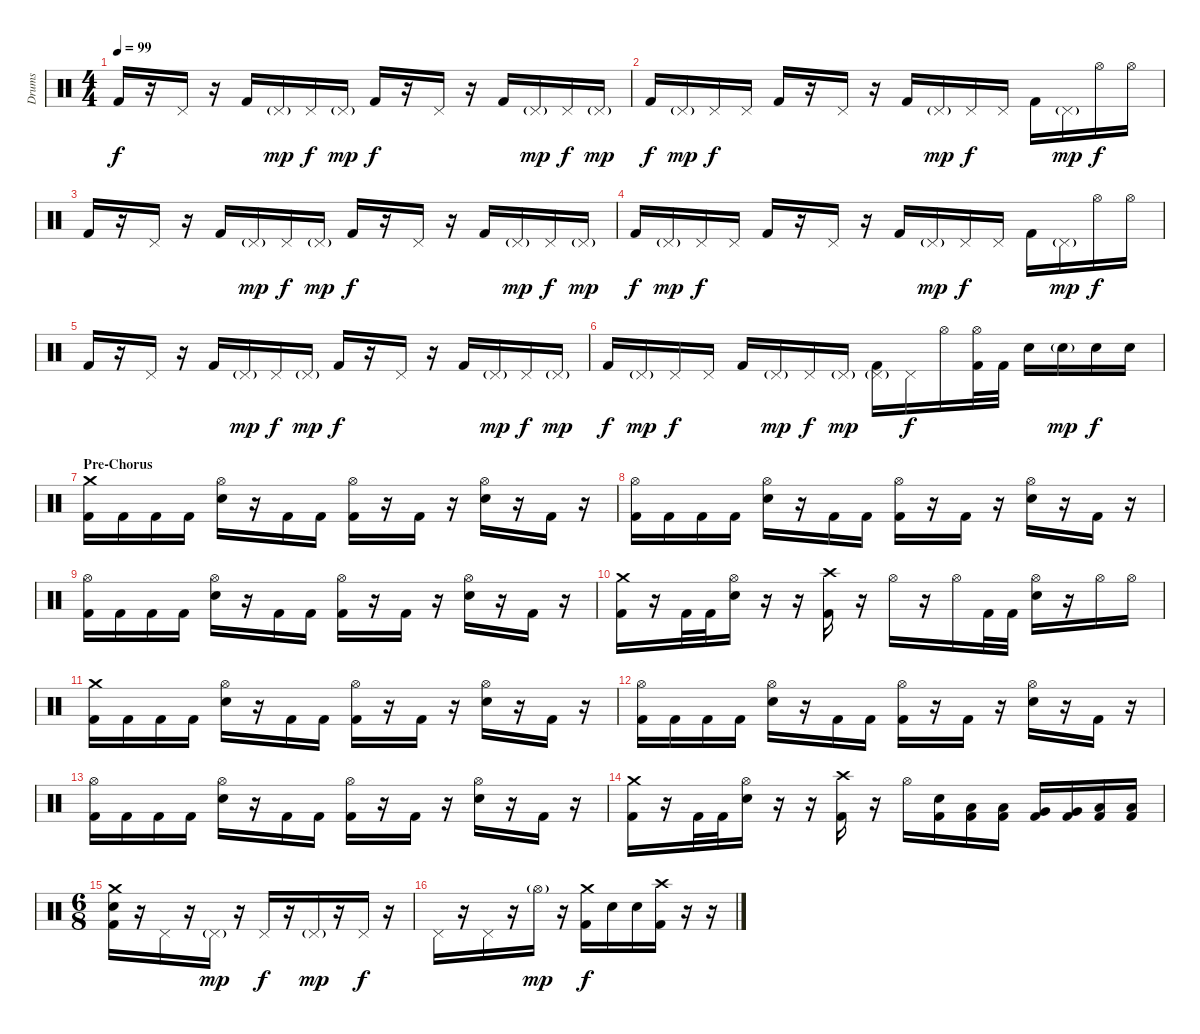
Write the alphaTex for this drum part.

\track ("Drums" "Drums") {instrument percussion}
\staff {score}
\articulation defaults
\ts (4 4)
\tempo 99
\clef neutral
\ks c "Kick (hit) 2".16{dy f}
r.16 "Pedal Hi-Hat (hit)".16 r.16 "Kick (hit) 2".16 "Pedal Hi-Hat (hit)"{g}.16{dy mp} "Pedal Hi-Hat (hit)".16{dy f} "Pedal Hi-Hat (hit)"{g}.16{dy mp} "Kick (hit) 2".16{dy f} r.16 "Pedal Hi-Hat (hit)".16 r.16 "Kick (hit) 2".16 "Pedal Hi-Hat (hit)"{g}.16{dy mp} "Pedal Hi-Hat (hit)".16{dy f} "Pedal Hi-Hat (hit)"{g}.16{dy mp} |
"Kick (hit) 2".16{dy f} "Pedal Hi-Hat (hit)"{g}.16{dy mp} "Pedal Hi-Hat (hit)".16{dy f} "Pedal Hi-Hat (hit)".16 "Kick (hit) 2".16 r.16 "Pedal Hi-Hat (hit)".16 r.16 "Kick (hit) 2".16 "Pedal Hi-Hat (hit)"{g}.16{dy mp} "Pedal Hi-Hat (hit)".16{dy f} "Pedal Hi-Hat (hit)".16 "Kick (hit) 2".16 "Pedal Hi-Hat (hit)"{g}.16{dy mp} "Hi-Hat (open)".16{dy f} "Hi-Hat (open)".16 |
"Kick (hit) 2".16 r.16 "Pedal Hi-Hat (hit)".16 r.16 "Kick (hit) 2".16 "Pedal Hi-Hat (hit)"{g}.16{dy mp} "Pedal Hi-Hat (hit)".16{dy f} "Pedal Hi-Hat (hit)"{g}.16{dy mp} "Kick (hit) 2".16{dy f} r.16 "Pedal Hi-Hat (hit)".16 r.16 "Kick (hit) 2".16 "Pedal Hi-Hat (hit)"{g}.16{dy mp} "Pedal Hi-Hat (hit)".16{dy f} "Pedal Hi-Hat (hit)"{g}.16{dy mp} |
"Kick (hit) 2".16{dy f} "Pedal Hi-Hat (hit)"{g}.16{dy mp} "Pedal Hi-Hat (hit)".16{dy f} "Pedal Hi-Hat (hit)".16 "Kick (hit) 2".16 r.16 "Pedal Hi-Hat (hit)".16 r.16 "Kick (hit) 2".16 "Pedal Hi-Hat (hit)"{g}.16{dy mp} "Pedal Hi-Hat (hit)".16{dy f} "Pedal Hi-Hat (hit)".16 "Kick (hit) 2".16 "Pedal Hi-Hat (hit)"{g}.16{dy mp} "Hi-Hat (open)".16{dy f} "Hi-Hat (open)".16 |
"Kick (hit) 2".16 r.16 "Pedal Hi-Hat (hit)".16 r.16 "Kick (hit) 2".16 "Pedal Hi-Hat (hit)"{g}.16{dy mp} "Pedal Hi-Hat (hit)".16{dy f} "Pedal Hi-Hat (hit)"{g}.16{dy mp} "Kick (hit) 2".16{dy f} r.16 "Pedal Hi-Hat (hit)".16 r.16 "Kick (hit) 2".16 "Pedal Hi-Hat (hit)"{g}.16{dy mp} "Pedal Hi-Hat (hit)".16{dy f} "Pedal Hi-Hat (hit)"{g}.16{dy mp} |
"Kick (hit) 2".16{dy f} "Pedal Hi-Hat (hit)"{g}.16{dy mp} "Pedal Hi-Hat (hit)".16{dy f} "Pedal Hi-Hat (hit)".16 "Kick (hit) 2".16 "Pedal Hi-Hat (hit)"{g}.16{dy mp} "Pedal Hi-Hat (hit)".16{dy f} "Pedal Hi-Hat (hit)"{g}.16{dy mp} ("Pedal Hi-Hat (hit)"{g} "Kick (hit) 2").16 "Pedal Hi-Hat (hit)".16{dy f} "Hi-Hat (open)".16 ("Hi-Hat (open)" "Kick (hit) 2").32 "Kick (hit) 2".32 "Electric Snare (hit)".16 "Electric Snare (hit)"{g}.16{dy mp} "Electric Snare (hit)".16{dy f} "Electric Snare (hit)".16 |
\section ("" "Pre-Chorus")
("Crash medium (hit)" "Kick (hit) 2").16 "Kick (hit) 2".16 "Kick (hit) 2".16 "Kick (hit) 2".16 ("Hi-Hat (open)" "Electric Snare (hit)").16 r.16 "Kick (hit) 2".16 "Kick (hit) 2".16 ("Hi-Hat (open)" "Kick (hit) 2").16 r.16 "Kick (hit) 2".16 r.16 ("Hi-Hat (open)" "Electric Snare (hit)").16 r.16 "Kick (hit) 2".16 r.16 |
("Hi-Hat (open)" "Kick (hit) 2").16 "Kick (hit) 2".16 "Kick (hit) 2".16 "Kick (hit) 2".16 ("Hi-Hat (open)" "Electric Snare (hit)").16 r.16 "Kick (hit) 2".16 "Kick (hit) 2".16 ("Hi-Hat (open)" "Kick (hit) 2").16 r.16 "Kick (hit) 2".16 r.16 ("Hi-Hat (open)" "Electric Snare (hit)").16 r.16 "Kick (hit) 2".16 r.16 |
("Hi-Hat (open)" "Kick (hit) 2").16 "Kick (hit) 2".16 "Kick (hit) 2".16 "Kick (hit) 2".16 ("Hi-Hat (open)" "Electric Snare (hit)").16 r.16 "Kick (hit) 2".16 "Kick (hit) 2".16 ("Hi-Hat (open)" "Kick (hit) 2").16 r.16 "Kick (hit) 2".16 r.16 ("Hi-Hat (open)" "Electric Snare (hit)").16 r.16 "Kick (hit) 2".16 r.16 |
("Crash medium (hit)" "Kick (hit) 2").16 r.16 "Kick (hit) 2".32 "Kick (hit) 2".32 ("Hi-Hat (open)" "Electric Snare (hit)").16 r.16 r.16 ("Crash high (hit)" "Kick (hit) 2").16 r.16 "Hi-Hat (open)".16 r.16 "Hi-Hat (open)".16 "Kick (hit) 2".32 "Kick (hit) 2".32 ("Hi-Hat (open)" "Electric Snare (hit)").16 r.16 "Hi-Hat (open)".16 "Hi-Hat (open)".16 |
("Crash medium (hit)" "Kick (hit) 2").16 "Kick (hit) 2".16 "Kick (hit) 2".16 "Kick (hit) 2".16 ("Hi-Hat (open)" "Electric Snare (hit)").16 r.16 "Kick (hit) 2".16 "Kick (hit) 2".16 ("Hi-Hat (open)" "Kick (hit) 2").16 r.16 "Kick (hit) 2".16 r.16 ("Hi-Hat (open)" "Electric Snare (hit)").16 r.16 "Kick (hit) 2".16 r.16 |
("Hi-Hat (open)" "Kick (hit) 2").16 "Kick (hit) 2".16 "Kick (hit) 2".16 "Kick (hit) 2".16 ("Hi-Hat (open)" "Electric Snare (hit)").16 r.16 "Kick (hit) 2".16 "Kick (hit) 2".16 ("Hi-Hat (open)" "Kick (hit) 2").16 r.16 "Kick (hit) 2".16 r.16 ("Hi-Hat (open)" "Electric Snare (hit)").16 r.16 "Kick (hit) 2".16 r.16 |
("Hi-Hat (open)" "Kick (hit) 2").16 "Kick (hit) 2".16 "Kick (hit) 2".16 "Kick (hit) 2".16 ("Hi-Hat (open)" "Electric Snare (hit)").16 r.16 "Kick (hit) 2".16 "Kick (hit) 2".16 ("Hi-Hat (open)" "Kick (hit) 2").16 r.16 "Kick (hit) 2".16 r.16 ("Hi-Hat (open)" "Electric Snare (hit)").16 r.16 "Kick (hit) 2".16 r.16 |
("Crash medium (hit)" "Kick (hit) 2").16 r.16 "Kick (hit) 2".32 "Kick (hit) 2".32 ("Hi-Hat (open)" "Electric Snare (hit)").16 r.16 r.16 ("Crash high (hit)" "Kick (hit) 2").16 r.16 "Hi-Hat (open)".16 ("Electric Snare (hit)" "Kick (hit) 2").16 ("Low Tom (hit)" "Kick (hit) 2").16 ("Low Tom (hit)" "Kick (hit) 2").16 ("Very Low Tom (hit)" "Kick (hit) 2").16 ("Very Low Tom (hit)" "Kick (hit) 2").16 ("Low Floor Tom (hit)" "Kick (hit) 2").16 ("Low Floor Tom (hit)" "Kick (hit) 2").16 |
\ts (6 8)
\section ("" "")
("Crash medium (hit)" "Electric Snare (hit)" "Kick (hit) 2").16 r.16 "Pedal Hi-Hat (hit)".16 r.16 "Pedal Hi-Hat (hit)"{g}.16{dy mp} r.16 "Pedal Hi-Hat (hit)".16{dy f} r.16 "Pedal Hi-Hat (hit)"{g}.16{dy mp} r.16 "Pedal Hi-Hat (hit)".16{dy f} r.16 |
"Pedal Hi-Hat (hit)".16 r.16 "Pedal Hi-Hat (hit)".16 r.16 "Hi-Hat (open)"{g}.16{dy mp} r.16 ("Crash medium (hit)" "Kick (hit) 2").16{dy f} "Electric Snare (hit)".16 "Electric Snare (hit)".16 ("Crash high (hit)" "Kick (hit) 2").16 r.16 r.16
